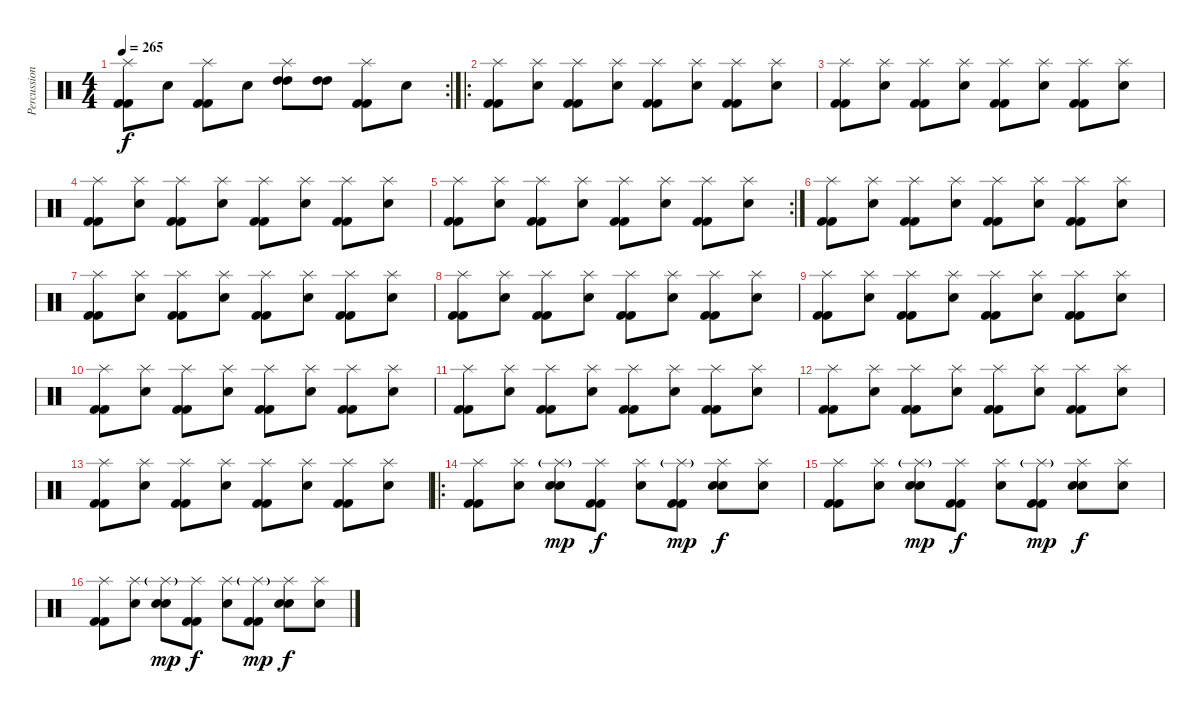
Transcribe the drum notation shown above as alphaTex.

\track ("Percussion" "Percussion") {instrument percussion}
\staff {score}
\articulation defaults
\rc 2
\ts (4 4)
\tempo 265
\clef neutral
\ks c
("Splash (hit)" "Kick (hit) 2" "Kick (hit) 2").8{dy f} "Snare (hit)".8 ("Splash (hit)" "Kick (hit) 2" "Kick (hit) 2").8 "Snare (hit)".8 ("Splash (hit)" "High Tom (hit)" "High Tom (hit)").8 ("High Tom (hit)" "High Tom (hit)").8 ("Splash (hit)" "Kick (hit) 2" "Kick (hit) 2").8 "Snare (hit)".8 |
\ro
("Splash (hit)" "Kick (hit) 2" "Kick (hit) 2").8 ("Splash (hit)" "Snare (hit)").8 ("Splash (hit)" "Kick (hit) 2" "Kick (hit) 2").8 ("Splash (hit)" "Snare (hit)").8 ("Splash (hit)" "Kick (hit) 2" "Kick (hit) 2").8 ("Splash (hit)" "Snare (hit)").8 ("Splash (hit)" "Kick (hit) 2" "Kick (hit) 2").8 ("Splash (hit)" "Snare (hit)").8 |
("Splash (hit)" "Kick (hit) 2" "Kick (hit) 2").8 ("Splash (hit)" "Snare (hit)").8 ("Splash (hit)" "Kick (hit) 2" "Kick (hit) 2").8 ("Splash (hit)" "Snare (hit)").8 ("Splash (hit)" "Kick (hit) 2" "Kick (hit) 2").8 ("Splash (hit)" "Snare (hit)").8 ("Splash (hit)" "Kick (hit) 2" "Kick (hit) 2").8 ("Splash (hit)" "Snare (hit)").8 |
("Splash (hit)" "Kick (hit) 2" "Kick (hit) 2").8 ("Splash (hit)" "Snare (hit)").8 ("Splash (hit)" "Kick (hit) 2" "Kick (hit) 2").8 ("Splash (hit)" "Snare (hit)").8 ("Splash (hit)" "Kick (hit) 2" "Kick (hit) 2").8 ("Splash (hit)" "Snare (hit)").8 ("Splash (hit)" "Kick (hit) 2" "Kick (hit) 2").8 ("Splash (hit)" "Snare (hit)").8 |
\rc 2
("Splash (hit)" "Kick (hit) 2" "Kick (hit) 2").8 ("Splash (hit)" "Snare (hit)").8 ("Splash (hit)" "Kick (hit) 2" "Kick (hit) 2").8 ("Splash (hit)" "Snare (hit)").8 ("Splash (hit)" "Kick (hit) 2" "Kick (hit) 2").8 ("Splash (hit)" "Snare (hit)").8 ("Splash (hit)" "Kick (hit) 2" "Kick (hit) 2").8 ("Splash (hit)" "Snare (hit)").8 |
("Splash (hit)" "Kick (hit) 2" "Kick (hit) 2").8 ("Splash (hit)" "Snare (hit)").8 ("Splash (hit)" "Kick (hit) 2" "Kick (hit) 2").8 ("Splash (hit)" "Snare (hit)").8 ("Splash (hit)" "Kick (hit) 2" "Kick (hit) 2").8 ("Splash (hit)" "Snare (hit)").8 ("Splash (hit)" "Kick (hit) 2" "Kick (hit) 2").8 ("Splash (hit)" "Snare (hit)").8 |
("Splash (hit)" "Kick (hit) 2" "Kick (hit) 2").8 ("Splash (hit)" "Snare (hit)").8 ("Splash (hit)" "Kick (hit) 2" "Kick (hit) 2").8 ("Splash (hit)" "Snare (hit)").8 ("Splash (hit)" "Kick (hit) 2" "Kick (hit) 2").8 ("Splash (hit)" "Snare (hit)").8 ("Splash (hit)" "Kick (hit) 2" "Kick (hit) 2").8 ("Splash (hit)" "Snare (hit)").8 |
("Splash (hit)" "Kick (hit) 2" "Kick (hit) 2").8 ("Splash (hit)" "Snare (hit)").8 ("Splash (hit)" "Kick (hit) 2" "Kick (hit) 2").8 ("Splash (hit)" "Snare (hit)").8 ("Splash (hit)" "Kick (hit) 2" "Kick (hit) 2").8 ("Splash (hit)" "Snare (hit)").8 ("Splash (hit)" "Kick (hit) 2" "Kick (hit) 2").8 ("Splash (hit)" "Snare (hit)").8 |
("Splash (hit)" "Kick (hit) 2" "Kick (hit) 2").8 ("Splash (hit)" "Snare (hit)").8 ("Splash (hit)" "Kick (hit) 2" "Kick (hit) 2").8 ("Splash (hit)" "Snare (hit)").8 ("Splash (hit)" "Kick (hit) 2" "Kick (hit) 2").8 ("Splash (hit)" "Snare (hit)").8 ("Splash (hit)" "Kick (hit) 2" "Kick (hit) 2").8 ("Splash (hit)" "Snare (hit)").8 |
("Splash (hit)" "Kick (hit) 2" "Kick (hit) 2").8 ("Splash (hit)" "Snare (hit)").8 ("Splash (hit)" "Kick (hit) 2" "Kick (hit) 2").8 ("Splash (hit)" "Snare (hit)").8 ("Splash (hit)" "Kick (hit) 2" "Kick (hit) 2").8 ("Splash (hit)" "Snare (hit)").8 ("Splash (hit)" "Kick (hit) 2" "Kick (hit) 2").8 ("Splash (hit)" "Snare (hit)").8 |
("Splash (hit)" "Kick (hit) 2" "Kick (hit) 2").8 ("Splash (hit)" "Snare (hit)").8 ("Splash (hit)" "Kick (hit) 2" "Kick (hit) 2").8 ("Splash (hit)" "Snare (hit)").8 ("Splash (hit)" "Kick (hit) 2" "Kick (hit) 2").8 ("Splash (hit)" "Snare (hit)").8 ("Splash (hit)" "Kick (hit) 2" "Kick (hit) 2").8 ("Splash (hit)" "Snare (hit)").8 |
("Splash (hit)" "Kick (hit) 2" "Kick (hit) 2").8 ("Splash (hit)" "Snare (hit)").8 ("Splash (hit)" "Kick (hit) 2" "Kick (hit) 2").8 ("Splash (hit)" "Snare (hit)").8 ("Splash (hit)" "Kick (hit) 2" "Kick (hit) 2").8 ("Splash (hit)" "Snare (hit)").8 ("Splash (hit)" "Kick (hit) 2" "Kick (hit) 2").8 ("Splash (hit)" "Snare (hit)").8 |
("Splash (hit)" "Kick (hit) 2" "Kick (hit) 2").8 ("Splash (hit)" "Snare (hit)").8 ("Splash (hit)" "Kick (hit) 2" "Kick (hit) 2").8 ("Splash (hit)" "Snare (hit)").8 ("Splash (hit)" "Kick (hit) 2" "Kick (hit) 2").8 ("Splash (hit)" "Snare (hit)").8 ("Splash (hit)" "Kick (hit) 2" "Kick (hit) 2").8 ("Splash (hit)" "Snare (hit)").8 |
\ro
("Splash (hit)" "Kick (hit) 2" "Kick (hit) 2").8 ("Splash (hit)" "Snare (hit)").8 ("Splash (hit)"{g} "Electric Snare (hit)" "Electric Snare (hit)").8{dy mp} ("Splash (hit)" "Kick (hit) 2" "Kick (hit) 2").8{dy f} ("Splash (hit)" "Snare (hit)").8 ("Splash (hit)"{g} "Kick (hit) 2" "Kick (hit) 2").8{dy mp} ("Splash (hit)" "Electric Snare (hit)" "Electric Snare (hit)").8{dy f} ("Splash (hit)" "Snare (hit)").8 |
("Splash (hit)" "Kick (hit) 2" "Kick (hit) 2").8 ("Splash (hit)" "Snare (hit)").8 ("Splash (hit)"{g} "Electric Snare (hit)" "Electric Snare (hit)").8{dy mp} ("Splash (hit)" "Kick (hit) 2" "Kick (hit) 2").8{dy f} ("Splash (hit)" "Snare (hit)").8 ("Splash (hit)"{g} "Kick (hit) 2" "Kick (hit) 2").8{dy mp} ("Splash (hit)" "Electric Snare (hit)" "Electric Snare (hit)").8{dy f} ("Splash (hit)" "Snare (hit)").8 |
("Splash (hit)" "Kick (hit) 2" "Kick (hit) 2").8 ("Splash (hit)" "Snare (hit)").8 ("Splash (hit)"{g} "Electric Snare (hit)" "Electric Snare (hit)").8{dy mp} ("Splash (hit)" "Kick (hit) 2" "Kick (hit) 2").8{dy f} ("Splash (hit)" "Snare (hit)").8 ("Splash (hit)"{g} "Kick (hit) 2" "Kick (hit) 2").8{dy mp} ("Splash (hit)" "Electric Snare (hit)" "Electric Snare (hit)").8{dy f} ("Splash (hit)" "Snare (hit)").8
